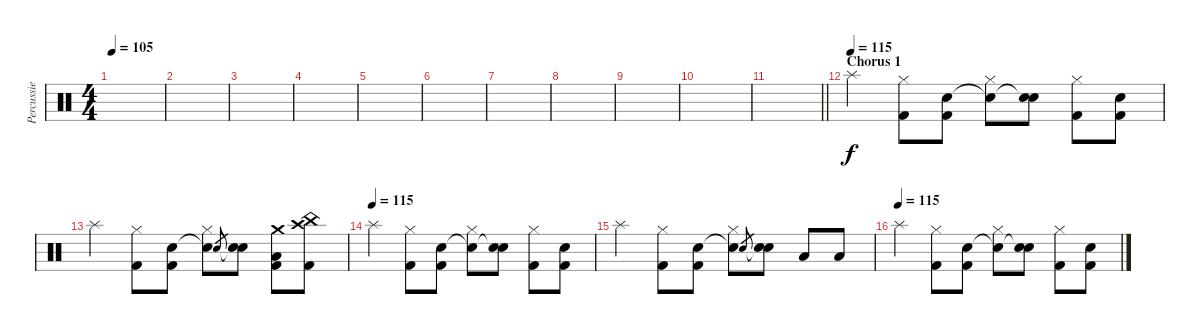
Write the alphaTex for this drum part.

\track ("Percussie" "Percussie") {instrument percussion}
\staff {score}
\articulation defaults
\ts (4 4)
\tempo 105
\clef neutral
\ks c
|
|
|
|
|
|
|
|
|
|
\barLineRight lightlight
|
\section ("" "Chorus 1")
\tempo (115)
"Splash (hit)".4 ("Hi-Hat (closed)" "Kick (hit) 2").8 ("Snare (hit) 2" "Kick (hit) 2").8 ("Snare (hit)"{t} "Hi-Hat (closed)").8 ("Snare (hit)"{t} "Snare (hit) 2").8 ("Hi-Hat (closed)" "Kick (hit) 2").8 ("Snare (hit) 2" "Kick (hit) 2").8 |
"Splash (hit)".4 ("Hi-Hat (closed)" "Kick (hit) 2").8 ("Snare (hit) 2" "Kick (hit) 2").8 ("Snare (hit)"{t} "Hi-Hat (closed)").8 "Snare (hit) 2".8{gr} ("Snare (hit)"{t} "Snare (hit) 2").8 ("Crash medium (hit)" "Kick (hit) 2" "Low Floor Tom (hit)").8 ("China (hit)" "Crash high (hit)" "Kick (hit) 2").8 |
\tempo (115)
"Splash (hit)".4 ("Hi-Hat (closed)" "Kick (hit) 2").8 ("Snare (hit) 2" "Kick (hit) 2").8 ("Snare (hit)"{t} "Hi-Hat (closed)").8 ("Snare (hit)"{t} "Snare (hit) 2").8 ("Hi-Hat (closed)" "Kick (hit) 2").8 ("Snare (hit) 2" "Kick (hit) 2").8 |
"Splash (hit)".4 ("Hi-Hat (closed)" "Kick (hit) 2").8 ("Snare (hit) 2" "Kick (hit) 2").8 ("Snare (hit)"{t} "Hi-Hat (closed)").8 "Snare (hit) 2".8{gr} ("Snare (hit)"{t} "Snare (hit) 2").8 "Low Floor Tom (hit)".8 "Low Floor Tom (hit)".8 |
\tempo (115)
"Splash (hit)".4 ("Hi-Hat (closed)" "Kick (hit) 2").8 ("Snare (hit) 2" "Kick (hit) 2").8 ("Snare (hit)"{t} "Hi-Hat (closed)").8 ("Snare (hit)"{t} "Snare (hit) 2").8 ("Hi-Hat (closed)" "Kick (hit) 2").8 ("Snare (hit) 2" "Kick (hit) 2").8
